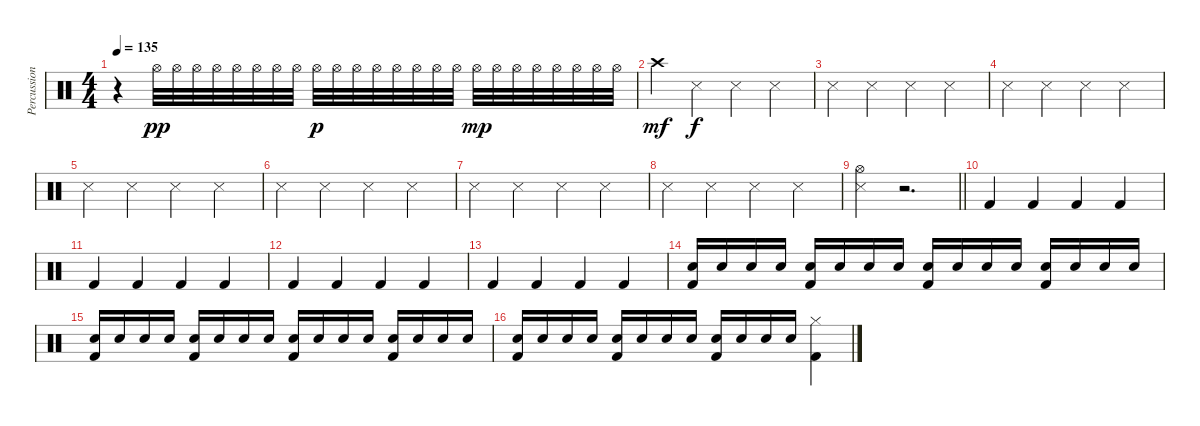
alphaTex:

\track ("Percussion" "Percussion") {instrument percussion}
\staff {score}
\articulation defaults
\ts (4 4)
\tempo 135
\clef neutral
\ks c
r.4{dy mf} "Hi-Hat (open)".32{dy pp} "Hi-Hat (open)".32 "Hi-Hat (open)".32 "Hi-Hat (open)".32 "Hi-Hat (open)".32 "Hi-Hat (open)".32 "Hi-Hat (open)".32 "Hi-Hat (open)".32 "Hi-Hat (open)".32{dy p} "Hi-Hat (open)".32 "Hi-Hat (open)".32 "Hi-Hat (open)".32 "Hi-Hat (open)".32 "Hi-Hat (open)".32 "Hi-Hat (open)".32 "Hi-Hat (open)".32 "Hi-Hat (open)".32{dy mp} "Hi-Hat (open)".32 "Hi-Hat (open)".32 "Hi-Hat (open)".32 "Hi-Hat (open)".32 "Hi-Hat (open)".32 "Hi-Hat (open)".32 "Hi-Hat (open)".32 |
"Crash high (hit)".4{dy mf} "Snare (side stick) 3".4{dy f} "Snare (side stick) 3".4 "Snare (side stick) 3".4 |
"Snare (side stick) 3".4 "Snare (side stick) 3".4 "Snare (side stick) 3".4 "Snare (side stick) 3".4 |
"Snare (side stick) 3".4 "Snare (side stick) 3".4 "Snare (side stick) 3".4 "Snare (side stick) 3".4 |
"Snare (side stick) 3".4 "Snare (side stick) 3".4 "Snare (side stick) 3".4 "Snare (side stick) 3".4 |
"Snare (side stick) 3".4 "Snare (side stick) 3".4 "Snare (side stick) 3".4 "Snare (side stick) 3".4 |
"Snare (side stick) 3".4 "Snare (side stick) 3".4 "Snare (side stick) 3".4 "Snare (side stick) 3".4 |
"Snare (side stick) 3".4 "Snare (side stick) 3".4 "Snare (side stick) 3".4 "Snare (side stick) 3".4 |
\barLineRight lightlight
("Hi-Hat (open)" "Snare (side stick) 3").4 r.2{d} |
"Kick (hit) 2".4 "Kick (hit) 2".4 "Kick (hit) 2".4 "Kick (hit) 2".4 |
"Kick (hit) 2".4 "Kick (hit) 2".4 "Kick (hit) 2".4 "Kick (hit) 2".4 |
"Kick (hit) 2".4 "Kick (hit) 2".4 "Kick (hit) 2".4 "Kick (hit) 2".4 |
"Kick (hit) 2".4 "Kick (hit) 2".4 "Kick (hit) 2".4 "Kick (hit) 2".4 |
("Snare (hit) 2" "Kick (hit) 2").16 "Snare (hit) 2".16 "Snare (hit) 2".16 "Snare (hit) 2".16 ("Snare (hit) 2" "Kick (hit) 2").16 "Snare (hit) 2".16 "Snare (hit) 2".16 "Snare (hit) 2".16 ("Snare (hit) 2" "Kick (hit) 2").16 "Snare (hit) 2".16 "Snare (hit) 2".16 "Snare (hit) 2".16 ("Snare (hit) 2" "Kick (hit) 2").16 "Snare (hit) 2".16 "Snare (hit) 2".16 "Snare (hit) 2".16 |
("Snare (hit) 2" "Kick (hit) 2").16 "Snare (hit) 2".16 "Snare (hit) 2".16 "Snare (hit) 2".16 ("Snare (hit) 2" "Kick (hit) 2").16 "Snare (hit) 2".16 "Snare (hit) 2".16 "Snare (hit) 2".16 ("Snare (hit) 2" "Kick (hit) 2").16 "Snare (hit) 2".16 "Snare (hit) 2".16 "Snare (hit) 2".16 ("Snare (hit) 2" "Kick (hit) 2").16 "Snare (hit) 2".16 "Snare (hit) 2".16 "Snare (hit) 2".16 |
("Snare (hit) 2" "Kick (hit) 2").16 "Snare (hit) 2".16 "Snare (hit) 2".16 "Snare (hit) 2".16 ("Snare (hit) 2" "Kick (hit) 2").16 "Snare (hit) 2".16 "Snare (hit) 2".16 "Snare (hit) 2".16 ("Snare (hit) 2" "Kick (hit) 2").16 "Snare (hit) 2".16 "Snare (hit) 2".16 "Snare (hit) 2".16 ("Hi-Hat (closed)" "Kick (hit) 2").4
